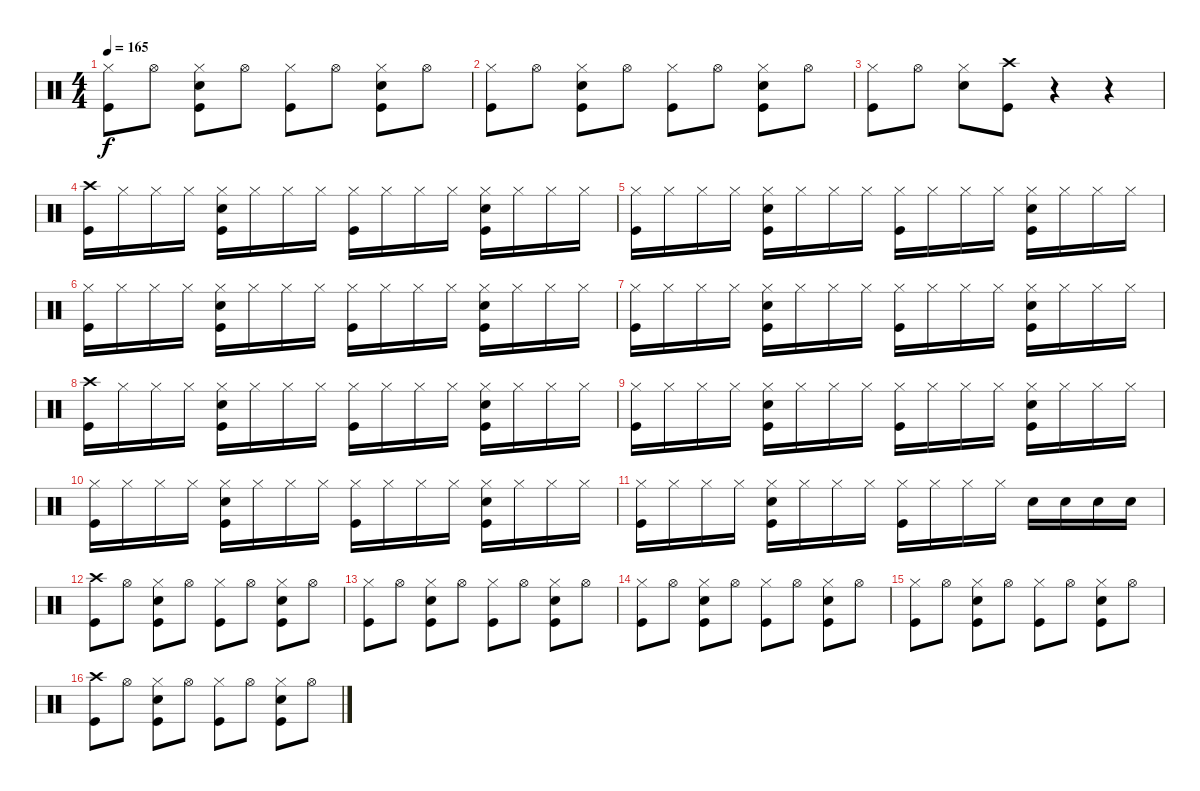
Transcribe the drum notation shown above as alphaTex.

\track "" {instrument percussion}
\staff {score}
\articulation defaults
\ts (4 4)
\tempo 165
\clef neutral
\ks c
("Hi-Hat (closed)" "Kick (hit)").8{dy f} "Hi-Hat (open)".8 ("Hi-Hat (closed)" "Electric Snare (hit)" "Kick (hit)").8 "Hi-Hat (open)".8 ("Hi-Hat (closed)" "Kick (hit)").8 "Hi-Hat (open)".8 ("Hi-Hat (closed)" "Electric Snare (hit)" "Kick (hit)").8 "Hi-Hat (open)".8 |
("Hi-Hat (closed)" "Kick (hit)").8 "Hi-Hat (open)".8 ("Hi-Hat (closed)" "Electric Snare (hit)" "Kick (hit)").8 "Hi-Hat (open)".8 ("Hi-Hat (closed)" "Kick (hit)").8 "Hi-Hat (open)".8 ("Hi-Hat (closed)" "Electric Snare (hit)" "Kick (hit)").8 "Hi-Hat (open)".8 |
("Hi-Hat (closed)" "Kick (hit)").8 "Hi-Hat (open)".8 ("Hi-Hat (closed)" "Electric Snare (hit)").8 ("Crash high (hit)" "Kick (hit)").8 r.4 r.4 |
("Crash high (hit)" "Kick (hit)").16 "Hi-Hat (closed)".16 "Hi-Hat (closed)".16 "Hi-Hat (closed)".16 ("Hi-Hat (closed)" "Electric Snare (hit)" "Kick (hit)").16 "Hi-Hat (closed)".16 "Hi-Hat (closed)".16 "Hi-Hat (closed)".16 ("Hi-Hat (closed)" "Kick (hit)").16 "Hi-Hat (closed)".16 "Hi-Hat (closed)".16 "Hi-Hat (closed)".16 ("Hi-Hat (closed)" "Electric Snare (hit)" "Kick (hit)").16 "Hi-Hat (closed)".16 "Hi-Hat (closed)".16 "Hi-Hat (closed)".16 |
("Hi-Hat (closed)" "Kick (hit)").16 "Hi-Hat (closed)".16 "Hi-Hat (closed)".16 "Hi-Hat (closed)".16 ("Hi-Hat (closed)" "Electric Snare (hit)" "Kick (hit)").16 "Hi-Hat (closed)".16 "Hi-Hat (closed)".16 "Hi-Hat (closed)".16 ("Hi-Hat (closed)" "Kick (hit)").16 "Hi-Hat (closed)".16 "Hi-Hat (closed)".16 "Hi-Hat (closed)".16 ("Hi-Hat (closed)" "Electric Snare (hit)" "Kick (hit)").16 "Hi-Hat (closed)".16 "Hi-Hat (closed)".16 "Hi-Hat (closed)".16 |
("Hi-Hat (closed)" "Kick (hit)").16 "Hi-Hat (closed)".16 "Hi-Hat (closed)".16 "Hi-Hat (closed)".16 ("Hi-Hat (closed)" "Electric Snare (hit)" "Kick (hit)").16 "Hi-Hat (closed)".16 "Hi-Hat (closed)".16 "Hi-Hat (closed)".16 ("Hi-Hat (closed)" "Kick (hit)").16 "Hi-Hat (closed)".16 "Hi-Hat (closed)".16 "Hi-Hat (closed)".16 ("Hi-Hat (closed)" "Electric Snare (hit)" "Kick (hit)").16 "Hi-Hat (closed)".16 "Hi-Hat (closed)".16 "Hi-Hat (closed)".16 |
("Hi-Hat (closed)" "Kick (hit)").16 "Hi-Hat (closed)".16 "Hi-Hat (closed)".16 "Hi-Hat (closed)".16 ("Hi-Hat (closed)" "Electric Snare (hit)" "Kick (hit)").16 "Hi-Hat (closed)".16 "Hi-Hat (closed)".16 "Hi-Hat (closed)".16 ("Hi-Hat (closed)" "Kick (hit)").16 "Hi-Hat (closed)".16 "Hi-Hat (closed)".16 "Hi-Hat (closed)".16 ("Hi-Hat (closed)" "Electric Snare (hit)" "Kick (hit)").16 "Hi-Hat (closed)".16 "Hi-Hat (closed)".16 "Hi-Hat (closed)".16 |
("Crash high (hit)" "Kick (hit)").16 "Hi-Hat (closed)".16 "Hi-Hat (closed)".16 "Hi-Hat (closed)".16 ("Hi-Hat (closed)" "Electric Snare (hit)" "Kick (hit)").16 "Hi-Hat (closed)".16 "Hi-Hat (closed)".16 "Hi-Hat (closed)".16 ("Hi-Hat (closed)" "Kick (hit)").16 "Hi-Hat (closed)".16 "Hi-Hat (closed)".16 "Hi-Hat (closed)".16 ("Hi-Hat (closed)" "Electric Snare (hit)" "Kick (hit)").16 "Hi-Hat (closed)".16 "Hi-Hat (closed)".16 "Hi-Hat (closed)".16 |
("Hi-Hat (closed)" "Kick (hit)").16 "Hi-Hat (closed)".16 "Hi-Hat (closed)".16 "Hi-Hat (closed)".16 ("Hi-Hat (closed)" "Electric Snare (hit)" "Kick (hit)").16 "Hi-Hat (closed)".16 "Hi-Hat (closed)".16 "Hi-Hat (closed)".16 ("Hi-Hat (closed)" "Kick (hit)").16 "Hi-Hat (closed)".16 "Hi-Hat (closed)".16 "Hi-Hat (closed)".16 ("Hi-Hat (closed)" "Electric Snare (hit)" "Kick (hit)").16 "Hi-Hat (closed)".16 "Hi-Hat (closed)".16 "Hi-Hat (closed)".16 |
("Hi-Hat (closed)" "Kick (hit)").16 "Hi-Hat (closed)".16 "Hi-Hat (closed)".16 "Hi-Hat (closed)".16 ("Hi-Hat (closed)" "Electric Snare (hit)" "Kick (hit)").16 "Hi-Hat (closed)".16 "Hi-Hat (closed)".16 "Hi-Hat (closed)".16 ("Hi-Hat (closed)" "Kick (hit)").16 "Hi-Hat (closed)".16 "Hi-Hat (closed)".16 "Hi-Hat (closed)".16 ("Hi-Hat (closed)" "Electric Snare (hit)" "Kick (hit)").16 "Hi-Hat (closed)".16 "Hi-Hat (closed)".16 "Hi-Hat (closed)".16 |
("Hi-Hat (closed)" "Kick (hit)").16 "Hi-Hat (closed)".16 "Hi-Hat (closed)".16 "Hi-Hat (closed)".16 ("Hi-Hat (closed)" "Electric Snare (hit)" "Kick (hit)").16 "Hi-Hat (closed)".16 "Hi-Hat (closed)".16 "Hi-Hat (closed)".16 ("Hi-Hat (closed)" "Kick (hit)").16 "Hi-Hat (closed)".16 "Hi-Hat (closed)".16 "Hi-Hat (closed)".16 "Electric Snare (hit)".16 "Electric Snare (hit)".16 "Electric Snare (hit)".16 "Electric Snare (hit)".16 |
("Crash high (hit)" "Kick (hit)").8 "Hi-Hat (open)".8 ("Hi-Hat (closed)" "Electric Snare (hit)" "Kick (hit)").8 "Hi-Hat (open)".8 ("Hi-Hat (closed)" "Kick (hit)").8 "Hi-Hat (open)".8 ("Hi-Hat (closed)" "Electric Snare (hit)" "Kick (hit)").8 "Hi-Hat (open)".8 |
("Hi-Hat (closed)" "Kick (hit)").8 "Hi-Hat (open)".8 ("Hi-Hat (closed)" "Electric Snare (hit)" "Kick (hit)").8 "Hi-Hat (open)".8 ("Hi-Hat (closed)" "Kick (hit)").8 "Hi-Hat (open)".8 ("Hi-Hat (closed)" "Electric Snare (hit)" "Kick (hit)").8 "Hi-Hat (open)".8 |
("Hi-Hat (closed)" "Kick (hit)").8 "Hi-Hat (open)".8 ("Hi-Hat (closed)" "Electric Snare (hit)" "Kick (hit)").8 "Hi-Hat (open)".8 ("Hi-Hat (closed)" "Kick (hit)").8 "Hi-Hat (open)".8 ("Hi-Hat (closed)" "Electric Snare (hit)" "Kick (hit)").8 "Hi-Hat (open)".8 |
("Hi-Hat (closed)" "Kick (hit)").8 "Hi-Hat (open)".8 ("Hi-Hat (closed)" "Electric Snare (hit)" "Kick (hit)").8 "Hi-Hat (open)".8 ("Hi-Hat (closed)" "Kick (hit)").8 "Hi-Hat (open)".8 ("Hi-Hat (closed)" "Electric Snare (hit)" "Kick (hit)").8 "Hi-Hat (open)".8 |
("Crash high (hit)" "Kick (hit)").8 "Hi-Hat (open)".8 ("Hi-Hat (closed)" "Electric Snare (hit)" "Kick (hit)").8 "Hi-Hat (open)".8 ("Hi-Hat (closed)" "Kick (hit)").8 "Hi-Hat (open)".8 ("Hi-Hat (closed)" "Electric Snare (hit)" "Kick (hit)").8 "Hi-Hat (open)".8
